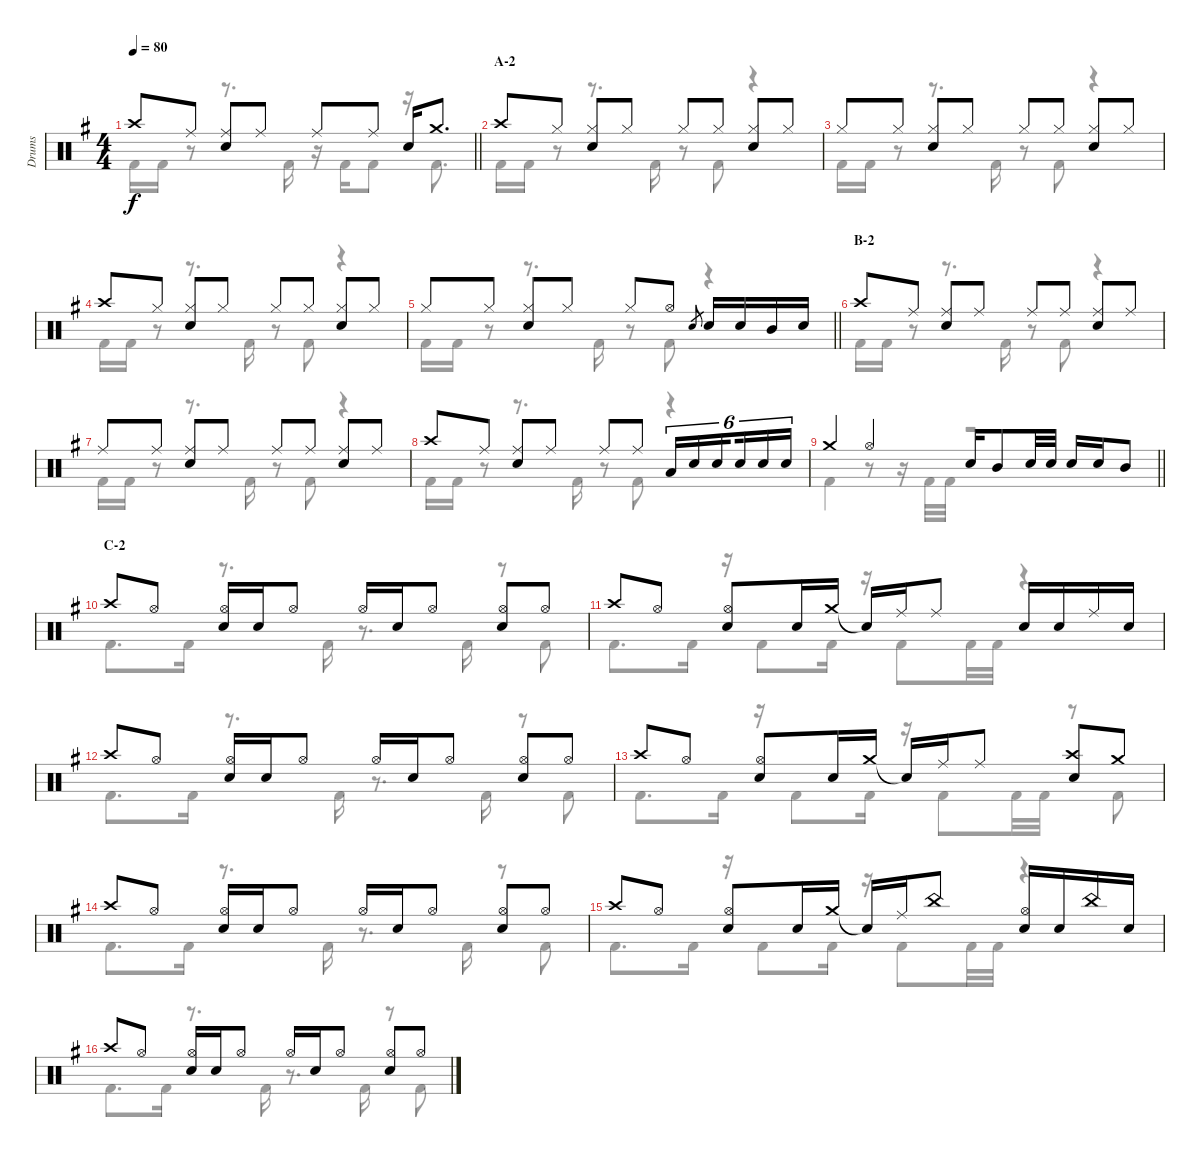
\track ("Drums" "Drums") {instrument percussion}
\staff {score}
\articulation defaults
\voice
\ts (4 4)
\tempo 80
\clef neutral
\barLineRight lightlight
\ks g "Crash high (hit)".8{dy f} "Ride (middle)".8
("Ride (middle)" "Snare (hit) 2").8 "Ride (middle)".8 "Ride (middle)".8 "Ride (middle)".8 "Snare (hit) 2".16 "Crash medium (hit)".8{d} |
\section ("" "A-2")
"Crash high (hit)".8 "Hi-Hat (closed)".8 ("Hi-Hat (closed)" "Snare (hit) 2").8 "Hi-Hat (closed)".8 "Hi-Hat (closed)".8 "Hi-Hat (closed)".8 ("Hi-Hat (closed)" "Snare (hit) 2").8 "Hi-Hat (closed)".8 |
"Hi-Hat (closed)".8 "Hi-Hat (closed)".8 ("Hi-Hat (closed)" "Snare (hit) 2").8 "Hi-Hat (closed)".8 "Hi-Hat (closed)".8 "Hi-Hat (closed)".8 ("Hi-Hat (closed)" "Snare (hit) 2").8 "Hi-Hat (closed)".8 |
"Crash high (hit)".8 "Hi-Hat (closed)".8 ("Hi-Hat (closed)" "Snare (hit) 2").8 "Hi-Hat (closed)".8 "Hi-Hat (closed)".8 "Hi-Hat (closed)".8 ("Hi-Hat (closed)" "Snare (hit) 2").8 "Hi-Hat (closed)".8 |
\barLineRight lightlight "Hi-Hat (closed)".8 "Hi-Hat (closed)".8
("Hi-Hat (closed)" "Snare (hit) 2").8 "Hi-Hat (closed)".8 "Hi-Hat (closed)".8 "Hi-Hat (open)".8 "Snare (hit) 2".8{gr} "Snare (hit) 2".16 "Snare (hit) 2".16 "Mid Tom (hit)".16 "Snare (hit) 2".16 |
\section ("" "B-2")
"Crash high (hit)".8 "Ride (middle)".8 ("Ride (middle)" "Snare (hit) 2").8 "Ride (middle)".8 "Ride (middle)".8 "Ride (middle)".8 ("Ride (middle)" "Snare (hit) 2").8 "Ride (middle)".8 |
"Ride (middle)".8 "Ride (middle)".8 ("Ride (middle)" "Snare (hit) 2").8 "Ride (middle)".8 "Ride (middle)".8 "Ride (middle)".8 ("Ride (middle)" "Snare (hit) 2").8 "Ride (middle)".8 |
"Crash high (hit)".8 "Ride (middle)".8 ("Ride (middle)" "Snare (hit) 2").8 "Ride (middle)".8 "Ride (middle)".8 "Ride (middle)".8 "Low Tom (hit)".16{tu (6 4)} "Snare (hit) 2".16{tu (6 4)} "Snare (hit) 2".16{tu (6 4) beam splitsecondary} "Snare (hit) 2".16{tu (6 4)} "Snare (hit) 2".16{tu (6 4)} "Snare (hit) 2".16{tu (6 4)} |
\barLineRight lightlight "Crash medium (hit)".4 "Hi-Hat (open)".4 "Snare (hit) 2".16 "Mid Tom (hit)".8 "Snare (hit) 2".32 "Snare (hit) 2".32 "Snare (hit) 2".16 "Snare (hit) 2".16 "Mid Tom (hit)".8
|
\section ("" "C-2")
"Crash high (hit)".8 "Hi-Hat (open)".8 ("Hi-Hat (open)" "Snare (hit) 2").16 "Snare (hit) 2".16 "Hi-Hat (open)".8 "Hi-Hat (open)".16 "Snare (hit) 2".16 "Hi-Hat (open)".8 ("Hi-Hat (open)" "Snare (hit) 2").8 "Hi-Hat (open)".8 |
"Crash high (hit)".8 "Hi-Hat (open)".8 ("Hi-Hat (open)" "Snare (hit) 2").8 "Snare (hit) 2".16 "Crash medium (hit)".16 "Snare (hit)"{t}.16 "Ride (middle)".16 "Ride (middle)".8 "Snare (hit) 2".16 "Snare (hit) 2".16 "Ride (middle)".16 "Snare (hit) 2".16 |
"Crash high (hit)".8 "Hi-Hat (open)".8 ("Hi-Hat (open)" "Snare (hit) 2").16 "Snare (hit) 2".16 "Hi-Hat (open)".8 "Hi-Hat (open)".16 "Snare (hit) 2".16 "Hi-Hat (open)".8 ("Hi-Hat (open)" "Snare (hit) 2").8 "Hi-Hat (open)".8 |
"Crash high (hit)".8 "Hi-Hat (open)".8 ("Hi-Hat (open)" "Snare (hit) 2").8 "Snare (hit) 2".16 "Crash medium (hit)".16 "Snare (hit)"{t}.16 "Ride (middle)".16 "Ride (middle)".8 ("Crash high (hit)" "Snare (hit) 2").8 "Crash medium (hit)".8 |
"Crash high (hit)".8 "Hi-Hat (open)".8 ("Hi-Hat (open)" "Snare (hit) 2").16 "Snare (hit) 2".16 "Hi-Hat (open)".8 "Hi-Hat (open)".16 "Snare (hit) 2".16 "Hi-Hat (open)".8 ("Hi-Hat (open)" "Snare (hit) 2").8 "Hi-Hat (open)".8 |
"Crash high (hit)".8 "Hi-Hat (open)".8 ("Hi-Hat (open)" "Snare (hit) 2").8 "Snare (hit) 2".16 "Crash medium (hit)".16 "Snare (hit)"{t}.16 "Ride (middle)".16 "China (hit)".8 ("Hi-Hat (open)" "Snare (hit) 2").16 "Snare (hit) 2".16 "China (hit)".16 "Snare (hit) 2".16 |
"Crash high (hit)".8 "Hi-Hat (open)".8 ("Hi-Hat (open)" "Snare (hit) 2").16 "Snare (hit) 2".16 "Hi-Hat (open)".8 "Hi-Hat (open)".16 "Snare (hit) 2".16 "Hi-Hat (open)".8 ("Hi-Hat (open)" "Snare (hit) 2").8 "Hi-Hat (open)".8
\voice
\clef neutral
\ottava regular
\simile none
\barLineRight lightlight
\ks g "Kick (hit) 2".16{dy f} "Kick (hit) 2".16
r.8 r.8{d} "Kick (hit) 2".16 r.16 "Kick (hit) 2".16 "Kick (hit) 2".8 r.16 "Kick (hit) 2".8{d} |
"Kick (hit) 2".16 "Kick (hit) 2".16 r.8 r.8{d} "Kick (hit) 2".16 r.8 "Kick (hit) 2".8 r.4 |
"Kick (hit) 2".16 "Kick (hit) 2".16 r.8 r.8{d} "Kick (hit) 2".16 r.8 "Kick (hit) 2".8 r.4 |
"Kick (hit) 2".16 "Kick (hit) 2".16 r.8 r.8{d} "Kick (hit) 2".16 r.8 "Kick (hit) 2".8 r.4 |
\barLineRight lightlight "Kick (hit) 2".16 "Kick (hit) 2".16
r.8 r.8{d} "Kick (hit) 2".16 r.8 "Kick (hit) 2".8 r.4 |
"Kick (hit) 2".16 "Kick (hit) 2".16 r.8 r.8{d} "Kick (hit) 2".16 r.8 "Kick (hit) 2".8 r.4 |
"Kick (hit) 2".16 "Kick (hit) 2".16 r.8 r.8{d} "Kick (hit) 2".16 r.8 "Kick (hit) 2".8 r.4 |
"Kick (hit) 2".16 "Kick (hit) 2".16 r.8 r.8{d} "Kick (hit) 2".16 r.8 "Kick (hit) 2".8 r.4 |
\barLineRight lightlight "Kick (hit) 2".4
r.8 r.16 "Kick (hit) 2".32 "Kick (hit) 2".32 r.2 |
"Kick (hit) 2".8{d} "Kick (hit) 2".16 r.8{d} "Kick (hit) 2".16 r.8{d} "Kick (hit) 2".16 r.8 "Kick (hit) 2".8 |
"Kick (hit) 2".8{d} "Kick (hit) 2".16 r.16 "Kick (hit) 2".8 "Kick (hit) 2".16 r.16 "Kick (hit) 2".8 "Kick (hit) 2".32 "Kick (hit) 2".32 r.4 |
"Kick (hit) 2".8{d} "Kick (hit) 2".16 r.8{d} "Kick (hit) 2".16 r.8{d} "Kick (hit) 2".16 r.8 "Kick (hit) 2".8 |
"Kick (hit) 2".8{d} "Kick (hit) 2".16 r.16 "Kick (hit) 2".8 "Kick (hit) 2".16 r.16 "Kick (hit) 2".8 "Kick (hit) 2".32 "Kick (hit) 2".32 r.8 "Kick (hit) 2".8 |
"Kick (hit) 2".8{d} "Kick (hit) 2".16 r.8{d} "Kick (hit) 2".16 r.8{d} "Kick (hit) 2".16 r.8 "Kick (hit) 2".8 |
"Kick (hit) 2".8{d} "Kick (hit) 2".16 r.16 "Kick (hit) 2".8 "Kick (hit) 2".16 r.16 "Kick (hit) 2".8 "Kick (hit) 2".32 "Kick (hit) 2".32 r.4 |
"Kick (hit) 2".8{d} "Kick (hit) 2".16 r.8{d} "Kick (hit) 2".16 r.8{d} "Kick (hit) 2".16 r.8 "Kick (hit) 2".8
